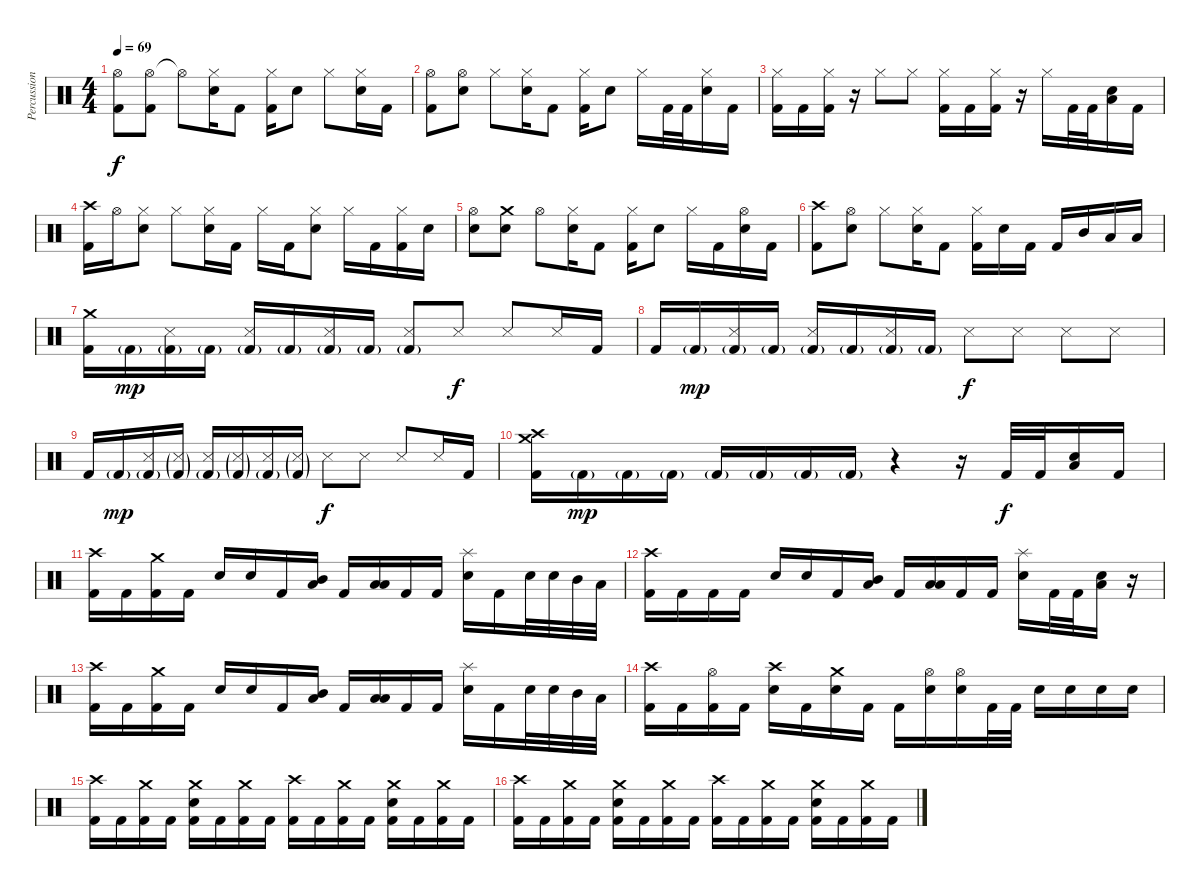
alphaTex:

\track ("Percussion" "Percussion") {instrument percussion}
\staff {score}
\articulation defaults
\ts (4 4)
\tempo 69
\clef neutral
\ks c
("Hi-Hat (open)" "Kick (hit) 2").8{dy f} ("Hi-Hat (open)" "Kick (hit) 2").8 "Hi-Hat (open)"{t}.8 ("Hi-Hat (closed)" "Electric Snare (hit)").16 "Kick (hit) 2".8 ("Hi-Hat (closed)" "Kick (hit) 2").16 "Electric Snare (hit)".8 "Hi-Hat (closed)".8 ("Hi-Hat (closed)" "Electric Snare (hit)").16 "Kick (hit) 2".16 |
("Hi-Hat (open)" "Kick (hit) 2").8 ("Hi-Hat (open)" "Electric Snare (hit)").8 "Hi-Hat (closed)".8 ("Hi-Hat (closed)" "Electric Snare (hit)").16 "Kick (hit) 2".8 ("Hi-Hat (closed)" "Kick (hit) 2").16 "Electric Snare (hit)".8 "Hi-Hat (closed)".16 "Kick (hit) 2".32 "Kick (hit) 2".32 ("Hi-Hat (closed)" "Electric Snare (hit)").16 "Kick (hit) 2".16 |
("Hi-Hat (closed)" "Kick (hit) 2").16 "Kick (hit) 2".16 ("Hi-Hat (closed)" "Kick (hit) 2").16 r.16 "Hi-Hat (closed)".8 "Hi-Hat (closed)".8 ("Hi-Hat (closed)" "Kick (hit) 2").16 "Kick (hit) 2".16 ("Hi-Hat (closed)" "Kick (hit) 2").16 r.16 "Hi-Hat (closed)".16 "Kick (hit) 2".32 "Kick (hit) 2".32 ("Low Floor Tom (hit)" "Electric Snare (hit)").16 "Kick (hit) 2".16 |
("Crash high (hit)" "Kick (hit) 2").16 "Hi-Hat (open)".16 ("Hi-Hat (closed)" "Electric Snare (hit)").8 "Hi-Hat (closed)".8 ("Hi-Hat (closed)" "Electric Snare (hit)").16 "Kick (hit) 2".16 "Hi-Hat (closed)".16 "Kick (hit) 2".16 ("Hi-Hat (closed)" "Electric Snare (hit)").8 "Hi-Hat (closed)".16 "Kick (hit) 2".16 ("Hi-Hat (closed)" "Kick (hit) 2").16 "Electric Snare (hit)".16 |
("Hi-Hat (open)" "Electric Snare (hit)").8 ("Crash medium (hit)" "Electric Snare (hit)").8 "Hi-Hat (open)".8 ("Hi-Hat (closed)" "Electric Snare (hit)").16 "Kick (hit) 2".8 ("Hi-Hat (closed)" "Kick (hit) 2").16 "Electric Snare (hit)".8 "Hi-Hat (closed)".16 "Kick (hit) 2".16 ("Hi-Hat (open)" "Electric Snare (hit)").16 "Kick (hit) 2".16 |
("Crash high (hit)" "Kick (hit) 2").8 ("Hi-Hat (open)" "Electric Snare (hit)").8 "Hi-Hat (closed)".8 ("Hi-Hat (closed)" "Electric Snare (hit)").16 "Kick (hit) 2".8 ("Hi-Hat (closed)" "Kick (hit) 2").16 "Electric Snare (hit)".16 "Kick (hit) 2".16 "Kick (hit) 2".16 "Mid Tom (hit)".16 "Low Tom (hit)".16 "Low Floor Tom (hit)".16 |
("Crash medium (hit)" "Kick (hit) 2").16 "Kick (hit) 2"{g}.16{dy mp} ("Metronome (hit)" "Kick (hit) 2"{g}).16 "Kick (hit) 2"{g}.16 ("Metronome (hit)" "Kick (hit) 2"{g}).16 "Kick (hit) 2"{g}.16 ("Metronome (hit)" "Kick (hit) 2"{g}).16 "Kick (hit) 2"{g}.16 ("Metronome (hit)" "Kick (hit) 2"{g}).8 "Metronome (hit)".8{dy f} "Metronome (hit)".8 "Metronome (hit)".16 "Kick (hit) 2".16 |
"Kick (hit) 2".16 "Kick (hit) 2"{g}.16{dy mp} ("Metronome (hit)" "Kick (hit) 2"{g}).16 "Kick (hit) 2"{g}.16 ("Metronome (hit)" "Kick (hit) 2"{g}).16 "Kick (hit) 2"{g}.16 ("Metronome (hit)" "Kick (hit) 2"{g}).16 "Kick (hit) 2"{g}.16 "Metronome (hit)".8{dy f} "Metronome (hit)".8 "Metronome (hit)".8 "Metronome (hit)".8 |
"Kick (hit) 2".16 "Kick (hit) 2"{g}.16{dy mp} ("Metronome (hit)" "Kick (hit) 2"{g}).16 ("Metronome (hit)"{g} "Kick (hit) 2"{g}).16 ("Metronome (hit)" "Kick (hit) 2"{g}).16 ("Metronome (hit)"{g} "Kick (hit) 2"{g}).16 ("Metronome (hit)" "Kick (hit) 2"{g}).16 ("Metronome (hit)"{g} "Kick (hit) 2"{g}).16 "Metronome (hit)".8{dy f} "Metronome (hit)".8 "Metronome (hit)".8 "Metronome (hit)".16 "Kick (hit) 2".16 |
("Crash high (hit)" "Crash medium (hit)" "Kick (hit) 2").16 "Kick (hit) 2"{g}.16{dy mp} "Kick (hit) 2"{g}.16 "Kick (hit) 2"{g}.16 "Kick (hit) 2"{g}.16 "Kick (hit) 2"{g}.16 "Kick (hit) 2"{g}.16 "Kick (hit) 2"{g}.16 r.4 r.16 "Kick (hit) 2".32{dy f} "Kick (hit) 2".32 ("Low Floor Tom (hit)" "Electric Snare (hit)").16 "Kick (hit) 2".16 |
("Crash high (hit)" "Kick (hit) 2").16 "Kick (hit) 2".16 ("Crash medium (hit)" "Kick (hit) 2").16 "Kick (hit) 2".16 "Electric Snare (hit)".16 "Electric Snare (hit)".16 "Kick (hit) 2".16 ("Low Floor Tom (hit)" "Mid Tom (hit)").16 "Kick (hit) 2".16 ("Low Floor Tom (hit)" "Low Tom (hit)").16 "Kick (hit) 2".16 "Kick (hit) 2".16 ("Splash (hit)" "Electric Snare (hit)").16 "Kick (hit) 2".16 "Electric Snare (hit)".32 "Electric Snare (hit)".32 "Mid Tom (hit)".32 "Low Tom (hit)".32 |
("Crash high (hit)" "Kick (hit) 2").16 "Kick (hit) 2".16 "Kick (hit) 2".16 "Kick (hit) 2".16 "Electric Snare (hit)".16 "Electric Snare (hit)".16 "Kick (hit) 2".16 ("Low Floor Tom (hit)" "Mid Tom (hit)").16 "Kick (hit) 2".16 ("Low Floor Tom (hit)" "Low Tom (hit)").16 "Kick (hit) 2".16 "Kick (hit) 2".16 ("Splash (hit)" "Electric Snare (hit)").16 "Kick (hit) 2".32 "Kick (hit) 2".32 ("Low Floor Tom (hit)" "Electric Snare (hit)").16 r.16 |
("Crash high (hit)" "Kick (hit) 2").16 "Kick (hit) 2".16 ("Crash medium (hit)" "Kick (hit) 2").16 "Kick (hit) 2".16 "Electric Snare (hit)".16 "Electric Snare (hit)".16 "Kick (hit) 2".16 ("Low Floor Tom (hit)" "Mid Tom (hit)").16 "Kick (hit) 2".16 ("Low Floor Tom (hit)" "Low Tom (hit)").16 "Kick (hit) 2".16 "Kick (hit) 2".16 ("Splash (hit)" "Electric Snare (hit)").16 "Kick (hit) 2".16 "Electric Snare (hit)".32 "Electric Snare (hit)".32 "Mid Tom (hit)".32 "Low Tom (hit)".32 |
("Crash high (hit)" "Kick (hit) 2").16 "Kick (hit) 2".16 ("Hi-Hat (open)" "Kick (hit) 2").16 "Kick (hit) 2".16 ("Crash high (hit)" "Electric Snare (hit)").16 "Kick (hit) 2".16 ("Crash medium (hit)" "Electric Snare (hit)").16 "Kick (hit) 2".16 "Kick (hit) 2".16 ("Hi-Hat (open)" "Electric Snare (hit)").16 ("Hi-Hat (open)" "Electric Snare (hit)").16 "Kick (hit) 2".32 "Kick (hit) 2".32 "Electric Snare (hit)".16 "Electric Snare (hit)".16 "Electric Snare (hit)".16 "Electric Snare (hit)".16 |
("Crash high (hit)" "Kick (hit) 2").16 "Kick (hit) 2".16 ("Crash medium (hit)" "Kick (hit) 2").16 "Kick (hit) 2".16 ("Crash medium (hit)" "Electric Snare (hit)" "Kick (hit) 2").16 "Kick (hit) 2".16 ("Crash medium (hit)" "Kick (hit) 2").16 "Kick (hit) 2".16 ("Crash high (hit)" "Kick (hit) 2").16 "Kick (hit) 2".16 ("Crash medium (hit)" "Kick (hit) 2").16 "Kick (hit) 2".16 ("Crash medium (hit)" "Electric Snare (hit)" "Kick (hit) 2").16 "Kick (hit) 2".16 ("Crash medium (hit)" "Kick (hit) 2").16 "Kick (hit) 2".16 |
("Crash high (hit)" "Kick (hit) 2").16 "Kick (hit) 2".16 ("Crash medium (hit)" "Kick (hit) 2").16 "Kick (hit) 2".16 ("Crash medium (hit)" "Electric Snare (hit)" "Kick (hit) 2").16 "Kick (hit) 2".16 ("Crash medium (hit)" "Kick (hit) 2").16 "Kick (hit) 2".16 ("Crash high (hit)" "Kick (hit) 2").16 "Kick (hit) 2".16 ("Crash medium (hit)" "Kick (hit) 2").16 "Kick (hit) 2".16 ("Crash medium (hit)" "Electric Snare (hit)" "Kick (hit) 2").16 "Kick (hit) 2".16 ("Crash medium (hit)" "Kick (hit) 2").16 "Kick (hit) 2".16
